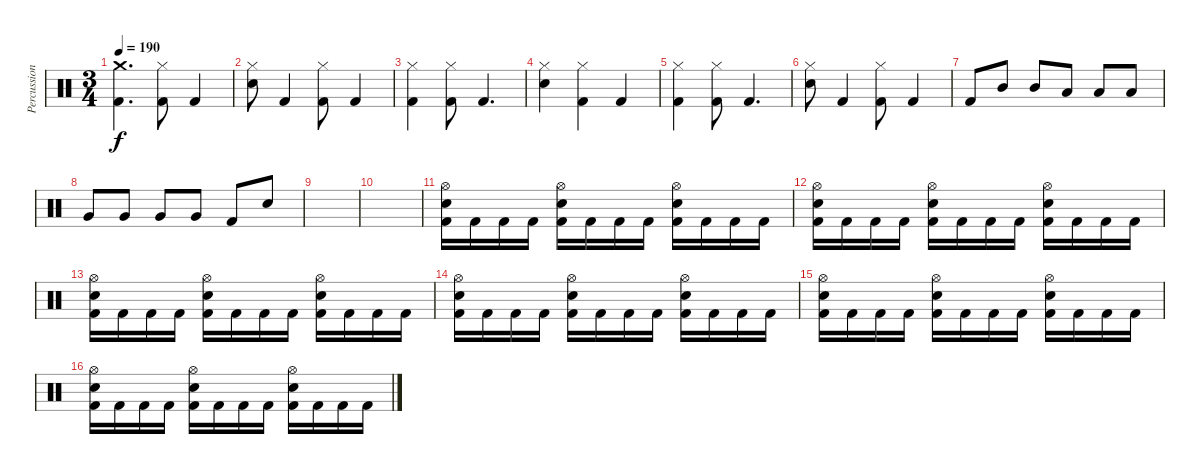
\track ("Percussion" "Percussion") {instrument percussion}
\staff {score}
\articulation defaults
\ts (3 4)
\tempo 190
\clef neutral
\ks c
("Kick (hit) 2" "Crash medium (hit)").4{d dy f} ("Kick (hit) 2" "Hi-Hat (closed)").8 "Kick (hit) 2".4 |
("Snare (hit) 2" "Hi-Hat (closed)").8 "Kick (hit) 2".4 ("Kick (hit) 2" "Hi-Hat (closed)").8 "Kick (hit) 2".4 |
("Kick (hit) 2" "Hi-Hat (closed)").4 ("Kick (hit) 2" "Hi-Hat (closed)").8 "Kick (hit) 2".4{d} |
("Snare (hit) 2" "Hi-Hat (closed)").4 ("Kick (hit) 2" "Hi-Hat (closed)").4 "Kick (hit) 2".4 |
("Kick (hit) 2" "Hi-Hat (closed)").4 ("Kick (hit) 2" "Hi-Hat (closed)").8 "Kick (hit) 2".4{d} |
("Snare (hit) 2" "Hi-Hat (closed)").8 "Kick (hit) 2".4 ("Kick (hit) 2" "Hi-Hat (closed)").8 "Kick (hit) 2".4 |
"Kick (hit) 2".8 "Mid Tom (hit)".8 "Mid Tom (hit)".8 "Low Tom (hit)".8 "Low Tom (hit)".8 "Low Tom (hit)".8 |
"Very Low Tom (hit)".8 "Very Low Tom (hit)".8 "Very Low Tom (hit)".8 "Very Low Tom (hit)".8 "Kick (hit) 2".8 "Snare (hit) 2".8 |
|
|
("Kick (hit) 2" "Snare (hit) 2" "Hi-Hat (open)").16 "Kick (hit) 2".16 "Kick (hit) 2".16 "Kick (hit) 2".16 ("Kick (hit) 2" "Snare (hit) 2" "Hi-Hat (open)").16 "Kick (hit) 2".16 "Kick (hit) 2".16 "Kick (hit) 2".16 ("Kick (hit) 2" "Snare (hit) 2" "Hi-Hat (open)").16 "Kick (hit) 2".16 "Kick (hit) 2".16 "Kick (hit) 2".16 |
("Kick (hit) 2" "Snare (hit) 2" "Hi-Hat (open)").16 "Kick (hit) 2".16 "Kick (hit) 2".16 "Kick (hit) 2".16 ("Kick (hit) 2" "Snare (hit) 2" "Hi-Hat (open)").16 "Kick (hit) 2".16 "Kick (hit) 2".16 "Kick (hit) 2".16 ("Kick (hit) 2" "Snare (hit) 2" "Hi-Hat (open)").16 "Kick (hit) 2".16 "Kick (hit) 2".16 "Kick (hit) 2".16 |
("Kick (hit) 2" "Snare (hit) 2" "Hi-Hat (open)").16 "Kick (hit) 2".16 "Kick (hit) 2".16 "Kick (hit) 2".16 ("Kick (hit) 2" "Snare (hit) 2" "Hi-Hat (open)").16 "Kick (hit) 2".16 "Kick (hit) 2".16 "Kick (hit) 2".16 ("Kick (hit) 2" "Snare (hit) 2" "Hi-Hat (open)").16 "Kick (hit) 2".16 "Kick (hit) 2".16 "Kick (hit) 2".16 |
("Kick (hit) 2" "Snare (hit) 2" "Hi-Hat (open)").16 "Kick (hit) 2".16 "Kick (hit) 2".16 "Kick (hit) 2".16 ("Kick (hit) 2" "Snare (hit) 2" "Hi-Hat (open)").16 "Kick (hit) 2".16 "Kick (hit) 2".16 "Kick (hit) 2".16 ("Kick (hit) 2" "Snare (hit) 2" "Hi-Hat (open)").16 "Kick (hit) 2".16 "Kick (hit) 2".16 "Kick (hit) 2".16 |
("Kick (hit) 2" "Snare (hit) 2" "Hi-Hat (open)").16 "Kick (hit) 2".16 "Kick (hit) 2".16 "Kick (hit) 2".16 ("Kick (hit) 2" "Snare (hit) 2" "Hi-Hat (open)").16 "Kick (hit) 2".16 "Kick (hit) 2".16 "Kick (hit) 2".16 ("Kick (hit) 2" "Snare (hit) 2" "Hi-Hat (open)").16 "Kick (hit) 2".16 "Kick (hit) 2".16 "Kick (hit) 2".16 |
("Kick (hit) 2" "Snare (hit) 2" "Hi-Hat (open)").16 "Kick (hit) 2".16 "Kick (hit) 2".16 "Kick (hit) 2".16 ("Kick (hit) 2" "Snare (hit) 2" "Hi-Hat (open)").16 "Kick (hit) 2".16 "Kick (hit) 2".16 "Kick (hit) 2".16 ("Kick (hit) 2" "Snare (hit) 2" "Hi-Hat (open)").16 "Kick (hit) 2".16 "Kick (hit) 2".16 "Kick (hit) 2".16
